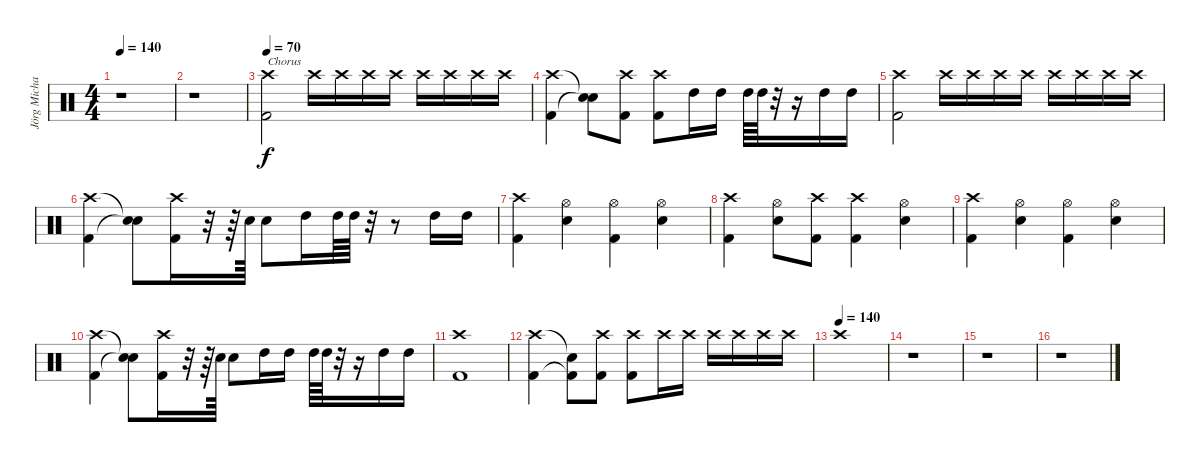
\track ("Jörg Michael (Drums)" "Jörg Micha") {instrument percussion}
\staff {score}
\articulation defaults
\ts (4 4)
\tempo 140
\clef neutral
\ks c
r.1{dy f} |
r.1 |
\tempo 70
("Crash high (hit)" "Kick (hit) 2").2{txt "Chorus"} "Crash high (hit)".16{volume 2} "Crash high (hit)".16{volume 3} "Crash high (hit)".16{volume 4} "Crash high (hit)".16{volume 6} "Crash high (hit)".16{volume 8} "Crash high (hit)".16{volume 10} "Crash high (hit)".16{volume 12} "Crash high (hit)".16{volume 14} |
("Crash high (hit)" "Kick (hit) 2").4 ("Snare (hit)"{t} "Snare (hit)"{t}).8 ("Crash high (hit)" "Kick (hit) 2").8 ("Crash high (hit)" "Kick (hit) 2").8 "High Tom (hit)".16 "High Tom (hit)".16 "High Tom (hit)".64 "High Tom (hit)".64 r.32 r.16 "High Tom (hit)".16 "High Tom (hit)".16 |
("Crash high (hit)" "Kick (hit) 2").2 "Crash high (hit)".16{volume 2} "Crash high (hit)".16{volume 3} "Crash high (hit)".16{volume 4} "Crash high (hit)".16{volume 6} "Crash high (hit)".16{volume 8} "Crash high (hit)".16{volume 10} "Crash high (hit)".16{volume 12} "Crash high (hit)".16{volume 14} |
("Crash high (hit)" "Kick (hit) 2").4 ("Snare (hit)"{t} "Snare (hit)"{t}).8 ("Crash high (hit)" "Kick (hit) 2").16 r.32 r.64 "Snare (hit) 2".64 "Snare (hit) 2".8 "High Tom (hit)".16 "High Tom (hit)".64 "High Tom (hit)".64 r.32 r.8 "High Tom (hit)".16 "High Tom (hit)".16 |
("Crash high (hit)" "Kick (hit) 2").4 ("Hi-Hat (open)" "Snare (hit) 2").4 ("Hi-Hat (open)" "Kick (hit) 2").4 ("Hi-Hat (open)" "Snare (hit) 2").4 |
("Crash high (hit)" "Kick (hit) 2").4 ("Hi-Hat (open)" "Snare (hit) 2").8 ("Crash high (hit)" "Kick (hit) 2").8 ("Crash high (hit)" "Kick (hit) 2").4 ("Hi-Hat (open)" "Snare (hit) 2").4 |
("Crash high (hit)" "Kick (hit) 2").4 ("Hi-Hat (open)" "Snare (hit) 2").4 ("Hi-Hat (open)" "Kick (hit) 2").4 ("Hi-Hat (open)" "Snare (hit) 2").4 |
("Crash high (hit)" "Kick (hit) 2").4 ("Snare (hit)"{t} "Snare (hit)"{t}).8 ("Crash high (hit)" "Kick (hit) 2").16 r.32 r.64 "Snare (hit) 2".64 "Snare (hit) 2".8 "High Tom (hit)".16 "High Tom (hit)".16 "High Tom (hit)".64 "High Tom (hit)".64 r.32 r.16 "High Tom (hit)".16 "High Tom (hit)".16 |
("Crash high (hit)" "Kick (hit) 2").1 |
("Crash high (hit)" "Kick (hit) 2").4 ("Snare (hit)"{t} "Kick (hit) 2"{t}).8 ("Crash high (hit)" "Kick (hit) 2").8 ("Crash high (hit)" "Kick (hit) 2").8 "Crash high (hit)".16{volume 4} "Crash high (hit)".16{volume 6} "Crash high (hit)".16{volume 8} "Crash high (hit)".16{volume 10} "Crash high (hit)".16{volume 12} "Crash high (hit)".16{volume 14} |
\tempo (140)
"Crash high (hit)".1 |
r.1 |
r.1 |
r.1
